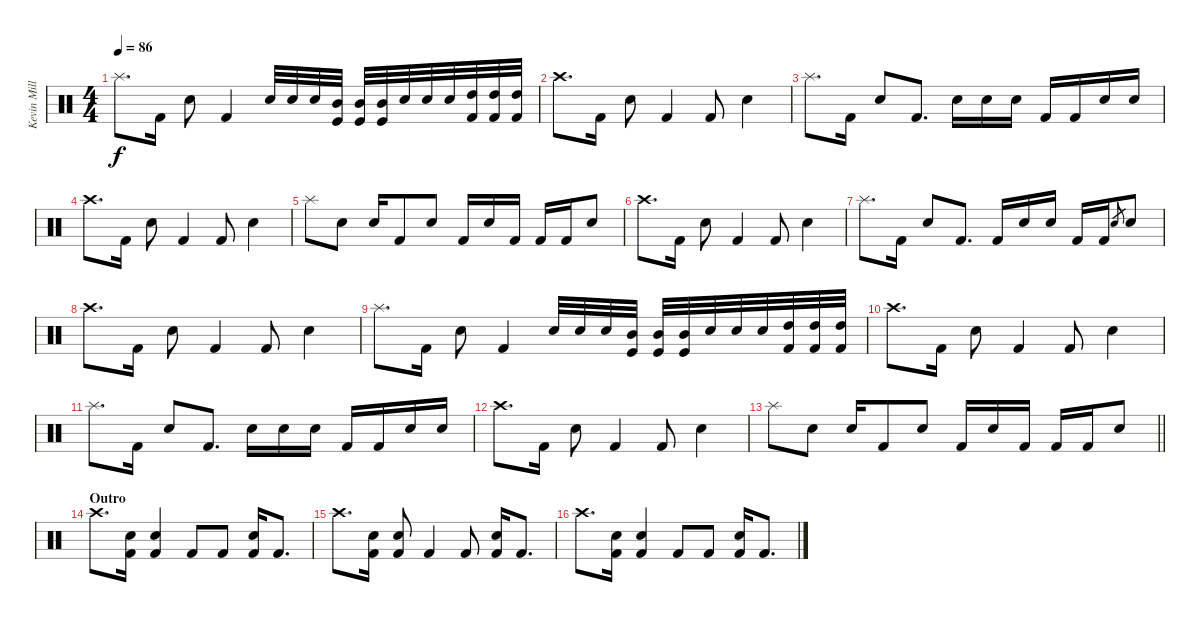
\track ("Kevin Miller (Drums)" "Kevin Mill") {instrument percussion}
\staff {score}
\articulation defaults
\ts (4 4)
\tempo 86
\clef neutral
\ks c "Splash (hit)".8{d dy f} "Kick (hit) 2".16 "Electric Snare (hit)".8 "Kick (hit) 2".4 "Snare (hit) 2".32 "Snare (hit) 2".32 "Snare (hit) 2".32
("Mid Tom (hit)" "Kick (hit)").32 ("Mid Tom (hit)" "Kick (hit)").32 ("Mid Tom (hit)" "Kick (hit)").32 "Electric Snare (hit)".32 "Electric Snare (hit)".32 "Electric Snare (hit)".32 ("High Tom (hit)" "Kick (hit) 2").32 ("High Tom (hit)" "Kick (hit) 2").32 ("High Tom (hit)" "Kick (hit) 2").32 |
"Crash high (hit)".8{d} "Kick (hit) 2".16 "Electric Snare (hit)".8 "Kick (hit) 2".4 "Kick (hit) 2".8 "Electric Snare (hit)".4 |
"Splash (hit)".8{d} "Kick (hit) 2".16 "Electric Snare (hit)".8 "Kick (hit) 2".8{d} "Electric Snare (hit)".16 "Electric Snare (hit)".16 "Electric Snare (hit)".16 "Kick (hit) 2".16 "Kick (hit) 2".16 "Electric Snare (hit)".16 "Electric Snare (hit)".16 |
"Crash high (hit)".8{d} "Kick (hit) 2".16 "Electric Snare (hit)".8 "Kick (hit) 2".4 "Kick (hit) 2".8 "Electric Snare (hit)".4 |
"Splash (hit)".8 "Electric Snare (hit)".8 "Electric Snare (hit)".16 "Kick (hit) 2".8 "Electric Snare (hit)".8 "Kick (hit) 2".16 "Electric Snare (hit)".16 "Kick (hit) 2".16 "Kick (hit) 2".16 "Kick (hit) 2".16 "Electric Snare (hit)".8 |
"Crash high (hit)".8{d} "Kick (hit) 2".16 "Electric Snare (hit)".8 "Kick (hit) 2".4 "Kick (hit) 2".8 "Electric Snare (hit)".4 |
"Splash (hit)".8{d} "Kick (hit) 2".16 "Electric Snare (hit)".8 "Kick (hit) 2".8{d} "Kick (hit) 2".16 "Electric Snare (hit)".16 "Electric Snare (hit)".16 "Kick (hit) 2".16 "Kick (hit) 2".16 "Electric Snare (hit)".8{gr} "Electric Snare (hit)".8 |
"Crash high (hit)".8{d} "Kick (hit) 2".16 "Electric Snare (hit)".8 "Kick (hit) 2".4 "Kick (hit) 2".8 "Electric Snare (hit)".4 |
"Splash (hit)".8{d} "Kick (hit) 2".16 "Electric Snare (hit)".8 "Kick (hit) 2".4 "Snare (hit) 2".32 "Snare (hit) 2".32 "Snare (hit) 2".32 ("Mid Tom (hit)" "Kick (hit)").32 ("Mid Tom (hit)" "Kick (hit)").32 ("Mid Tom (hit)" "Kick (hit)").32 "Electric Snare (hit)".32 "Electric Snare (hit)".32 "Electric Snare (hit)".32 ("High Tom (hit)" "Kick (hit) 2").32 ("High Tom (hit)" "Kick (hit) 2").32 ("High Tom (hit)" "Kick (hit) 2").32 |
"Crash high (hit)".8{d} "Kick (hit) 2".16 "Electric Snare (hit)".8 "Kick (hit) 2".4 "Kick (hit) 2".8 "Electric Snare (hit)".4 |
"Splash (hit)".8{d} "Kick (hit) 2".16 "Electric Snare (hit)".8 "Kick (hit) 2".8{d} "Electric Snare (hit)".16 "Electric Snare (hit)".16 "Electric Snare (hit)".16 "Kick (hit) 2".16 "Kick (hit) 2".16 "Electric Snare (hit)".16 "Electric Snare (hit)".16 |
"Crash high (hit)".8{d} "Kick (hit) 2".16 "Electric Snare (hit)".8 "Kick (hit) 2".4 "Kick (hit) 2".8 "Electric Snare (hit)".4 |
\barLineRight lightlight "Splash (hit)".8 "Electric Snare (hit)".8 "Electric Snare (hit)".16 "Kick (hit) 2".8 "Electric Snare (hit)".8 "Kick (hit) 2".16 "Electric Snare (hit)".16 "Kick (hit) 2".16 "Kick (hit) 2".16 "Kick (hit) 2".16 "Electric Snare (hit)".8
|
\section ("" "Outro")
"Crash high (hit)".8{d} ("Electric Snare (hit)" "Kick (hit) 2").16 ("Electric Snare (hit)" "Kick (hit) 2").4 "Kick (hit) 2".8 "Kick (hit) 2".8 ("Electric Snare (hit)" "Kick (hit) 2").16 "Kick (hit) 2".8{d} |
"Crash high (hit)".8{d} ("Electric Snare (hit)" "Kick (hit) 2").16 ("Electric Snare (hit)" "Kick (hit) 2").8 "Kick (hit) 2".4 "Kick (hit) 2".8 ("Electric Snare (hit)" "Kick (hit) 2").16 "Kick (hit) 2".8{d} |
"Crash high (hit)".8{d} ("Electric Snare (hit)" "Kick (hit) 2").16 ("Electric Snare (hit)" "Kick (hit) 2").4 "Kick (hit) 2".8 "Kick (hit) 2".8 ("Electric Snare (hit)" "Kick (hit) 2").16 "Kick (hit) 2".8{d}
